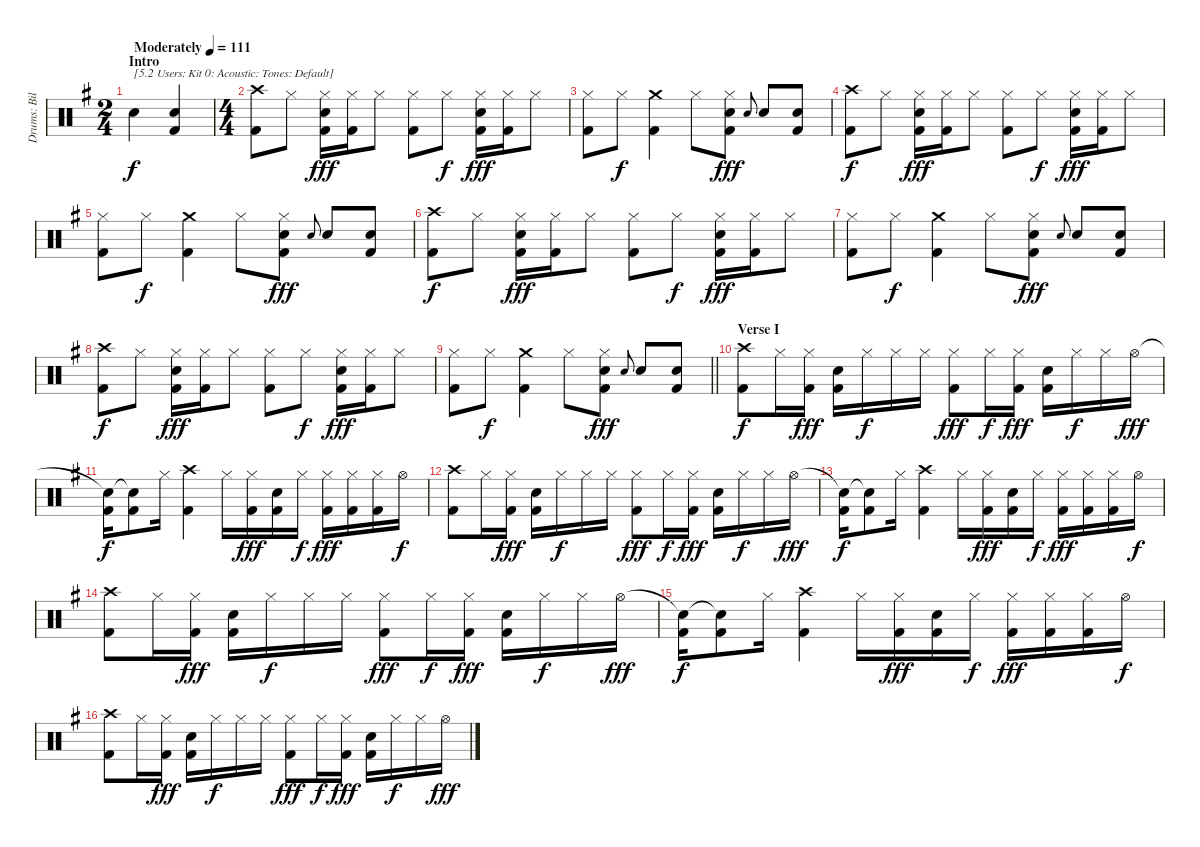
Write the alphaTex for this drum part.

\track ("Drums: Bill" "Drums: Bil") {instrument percussion}
\staff {score}
\articulation defaults
\ts (2 4)
\section ("" "Intro")
\tempo (111 "Moderately")
\clef neutral
\ks g "Snare (hit) 2".4{txt "[5.2 Users: Kit 0: Acoustic: Tones: Default]" dy f}
("Snare (hit) 2" "Kick (hit) 2").4 |
\ts (4 4)
("Crash high (hit)" "Kick (hit) 2").8 "Hi-Hat (closed)".8 ("Hi-Hat (closed)" "Electric Snare (hit)" "Kick (hit) 2").16{dy fff} ("Hi-Hat (closed)" "Kick (hit) 2").16 "Hi-Hat (closed)".8 ("Hi-Hat (closed)" "Kick (hit) 2").8 "Hi-Hat (closed)".8{dy f} ("Hi-Hat (closed)" "Electric Snare (hit)" "Kick (hit) 2").16{dy fff} ("Hi-Hat (closed)" "Kick (hit) 2").16 "Hi-Hat (closed)".8 |
("Hi-Hat (closed)" "Kick (hit) 2").8 "Hi-Hat (closed)".8{dy f} ("Crash medium (hit)" "Kick (hit) 2").4 "Hi-Hat (closed)".8 ("Hi-Hat (closed)" "Electric Snare (hit)" "Kick (hit) 2").8{dy fff} "Snare (hit) 2".8{gr onbeat} "Electric Snare (hit)".8 ("Electric Snare (hit)" "Kick (hit) 2").8 |
("Crash high (hit)" "Kick (hit) 2").8{dy f} "Hi-Hat (closed)".8 ("Hi-Hat (closed)" "Electric Snare (hit)" "Kick (hit) 2").16{dy fff} ("Hi-Hat (closed)" "Kick (hit) 2").16 "Hi-Hat (closed)".8 ("Hi-Hat (closed)" "Kick (hit) 2").8 "Hi-Hat (closed)".8{dy f} ("Hi-Hat (closed)" "Electric Snare (hit)" "Kick (hit) 2").16{dy fff} ("Hi-Hat (closed)" "Kick (hit) 2").16 "Hi-Hat (closed)".8 |
("Hi-Hat (closed)" "Kick (hit) 2").8 "Hi-Hat (closed)".8{dy f} ("Crash medium (hit)" "Kick (hit) 2").4 "Hi-Hat (closed)".8 ("Hi-Hat (closed)" "Electric Snare (hit)" "Kick (hit) 2").8{dy fff} "Snare (hit) 2".8{gr onbeat} "Electric Snare (hit)".8 ("Electric Snare (hit)" "Kick (hit) 2").8 |
("Crash high (hit)" "Kick (hit) 2").8{dy f} "Hi-Hat (closed)".8 ("Hi-Hat (closed)" "Electric Snare (hit)" "Kick (hit) 2").16{dy fff} ("Hi-Hat (closed)" "Kick (hit) 2").16 "Hi-Hat (closed)".8 ("Hi-Hat (closed)" "Kick (hit) 2").8 "Hi-Hat (closed)".8{dy f} ("Hi-Hat (closed)" "Electric Snare (hit)" "Kick (hit) 2").16{dy fff} ("Hi-Hat (closed)" "Kick (hit) 2").16 "Hi-Hat (closed)".8 |
("Hi-Hat (closed)" "Kick (hit) 2").8 "Hi-Hat (closed)".8{dy f} ("Crash medium (hit)" "Kick (hit) 2").4 "Hi-Hat (closed)".8 ("Hi-Hat (closed)" "Electric Snare (hit)" "Kick (hit) 2").8{dy fff} "Snare (hit) 2".8{gr onbeat} "Electric Snare (hit)".8 ("Electric Snare (hit)" "Kick (hit) 2").8 |
("Crash high (hit)" "Kick (hit) 2").8{dy f} "Hi-Hat (closed)".8 ("Hi-Hat (closed)" "Electric Snare (hit)" "Kick (hit) 2").16{dy fff} ("Hi-Hat (closed)" "Kick (hit) 2").16 "Hi-Hat (closed)".8 ("Hi-Hat (closed)" "Kick (hit) 2").8 "Hi-Hat (closed)".8{dy f} ("Hi-Hat (closed)" "Electric Snare (hit)" "Kick (hit) 2").16{dy fff} ("Hi-Hat (closed)" "Kick (hit) 2").16 "Hi-Hat (closed)".8 |
\barLineRight lightlight
("Hi-Hat (closed)" "Kick (hit) 2").8 "Hi-Hat (closed)".8{dy f} ("Crash medium (hit)" "Kick (hit) 2").4 "Hi-Hat (closed)".8 ("Hi-Hat (closed)" "Electric Snare (hit)" "Kick (hit) 2").8{dy fff} "Snare (hit) 2".8{gr onbeat} "Electric Snare (hit)".8 ("Electric Snare (hit)" "Kick (hit) 2").8 |
\section ("" "Verse I")
("Crash high (hit)" "Kick (hit) 2").8{dy f} "Hi-Hat (closed)".16 ("Hi-Hat (closed)" "Kick (hit) 2").16{dy fff} ("Electric Snare (hit)" "Kick (hit) 2").16 "Hi-Hat (closed)".16{dy f} "Hi-Hat (closed)".16 "Hi-Hat (closed)".16 ("Hi-Hat (closed)" "Kick (hit) 2").8{dy fff} "Hi-Hat (closed)".16{dy f} ("Hi-Hat (closed)" "Kick (hit) 2").16{dy fff} ("Electric Snare (hit)" "Kick (hit) 2").16 "Hi-Hat (closed)".16{dy f} "Hi-Hat (closed)".16 "Hi-Hat (open)".16{dy fff} |
("Snare (hit)"{t} "Kick (hit) 2").16{dy f} ("Snare (hit)"{t} "Kick (hit) 2").8 "Hi-Hat (closed)".16 ("Crash high (hit)" "Kick (hit) 2").4 "Hi-Hat (closed)".16 ("Hi-Hat (closed)" "Kick (hit) 2").16{dy fff} ("Electric Snare (hit)" "Kick (hit) 2").16 "Hi-Hat (closed)".16{dy f} ("Hi-Hat (closed)" "Kick (hit) 2").16{dy fff} ("Hi-Hat (closed)" "Kick (hit) 2").16 ("Hi-Hat (closed)" "Kick (hit) 2").16 "Hi-Hat (open)".16{dy f} |
("Crash high (hit)" "Kick (hit) 2").8 "Hi-Hat (closed)".16 ("Hi-Hat (closed)" "Kick (hit) 2").16{dy fff} ("Electric Snare (hit)" "Kick (hit) 2").16 "Hi-Hat (closed)".16{dy f} "Hi-Hat (closed)".16 "Hi-Hat (closed)".16 ("Hi-Hat (closed)" "Kick (hit) 2").8{dy fff} "Hi-Hat (closed)".16{dy f} ("Hi-Hat (closed)" "Kick (hit) 2").16{dy fff} ("Electric Snare (hit)" "Kick (hit) 2").16 "Hi-Hat (closed)".16{dy f} "Hi-Hat (closed)".16 "Hi-Hat (open)".16{dy fff} |
("Snare (hit)"{t} "Kick (hit) 2").16{dy f} ("Snare (hit)"{t} "Kick (hit) 2").8 "Hi-Hat (closed)".16 ("Crash high (hit)" "Kick (hit) 2").4 "Hi-Hat (closed)".16 ("Hi-Hat (closed)" "Kick (hit) 2").16{dy fff} ("Electric Snare (hit)" "Kick (hit) 2").16 "Hi-Hat (closed)".16{dy f} ("Hi-Hat (closed)" "Kick (hit) 2").16{dy fff} ("Hi-Hat (closed)" "Kick (hit) 2").16 ("Hi-Hat (closed)" "Kick (hit) 2").16 "Hi-Hat (open)".16{dy f} |
("Crash high (hit)" "Kick (hit) 2").8 "Hi-Hat (closed)".16 ("Hi-Hat (closed)" "Kick (hit) 2").16{dy fff} ("Electric Snare (hit)" "Kick (hit) 2").16 "Hi-Hat (closed)".16{dy f} "Hi-Hat (closed)".16 "Hi-Hat (closed)".16 ("Hi-Hat (closed)" "Kick (hit) 2").8{dy fff} "Hi-Hat (closed)".16{dy f} ("Hi-Hat (closed)" "Kick (hit) 2").16{dy fff} ("Electric Snare (hit)" "Kick (hit) 2").16 "Hi-Hat (closed)".16{dy f} "Hi-Hat (closed)".16 "Hi-Hat (open)".16{dy fff} |
("Snare (hit)"{t} "Kick (hit) 2").16{dy f} ("Snare (hit)"{t} "Kick (hit) 2").8 "Hi-Hat (closed)".16 ("Crash high (hit)" "Kick (hit) 2").4 "Hi-Hat (closed)".16 ("Hi-Hat (closed)" "Kick (hit) 2").16{dy fff} ("Electric Snare (hit)" "Kick (hit) 2").16 "Hi-Hat (closed)".16{dy f} ("Hi-Hat (closed)" "Kick (hit) 2").16{dy fff} ("Hi-Hat (closed)" "Kick (hit) 2").16 ("Hi-Hat (closed)" "Kick (hit) 2").16 "Hi-Hat (open)".16{dy f} |
("Crash high (hit)" "Kick (hit) 2").8 "Hi-Hat (closed)".16 ("Hi-Hat (closed)" "Kick (hit) 2").16{dy fff} ("Electric Snare (hit)" "Kick (hit) 2").16 "Hi-Hat (closed)".16{dy f} "Hi-Hat (closed)".16 "Hi-Hat (closed)".16 ("Hi-Hat (closed)" "Kick (hit) 2").8{dy fff} "Hi-Hat (closed)".16{dy f} ("Hi-Hat (closed)" "Kick (hit) 2").16{dy fff} ("Electric Snare (hit)" "Kick (hit) 2").16 "Hi-Hat (closed)".16{dy f} "Hi-Hat (closed)".16 "Hi-Hat (open)".16{dy fff}
